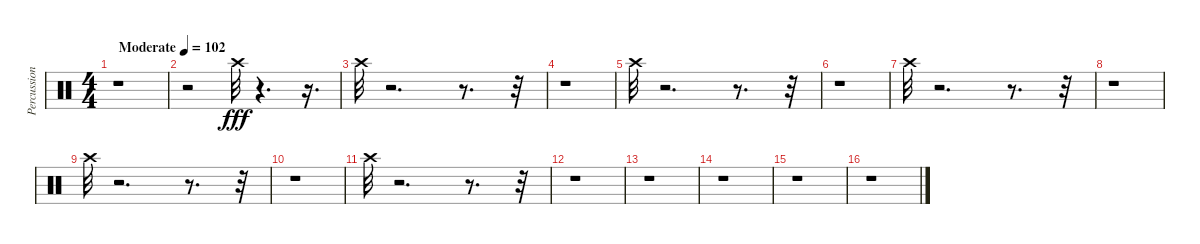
\track ("Percussion" "Percussion") {instrument percussion}
\staff {score}
\articulation defaults
\ts (4 4)
\tempo (102 "Moderate")
\clef neutral
\ks c
r.1{dy fff} |
r.2 "Crash high (hit)".32 r.4{d} r.16{d} |
"Crash high (hit)".32 r.2{d} r.8{d} r.32 |
r.1 |
"Crash high (hit)".32 r.2{d} r.8{d} r.32 |
r.1 |
"Crash high (hit)".32 r.2{d} r.8{d} r.32 |
r.1 |
"Crash high (hit)".32 r.2{d} r.8{d} r.32 |
r.1 |
"Crash high (hit)".32 r.2{d} r.8{d} r.32 |
r.1 |
r.1 |
r.1 |
r.1 |
r.1
